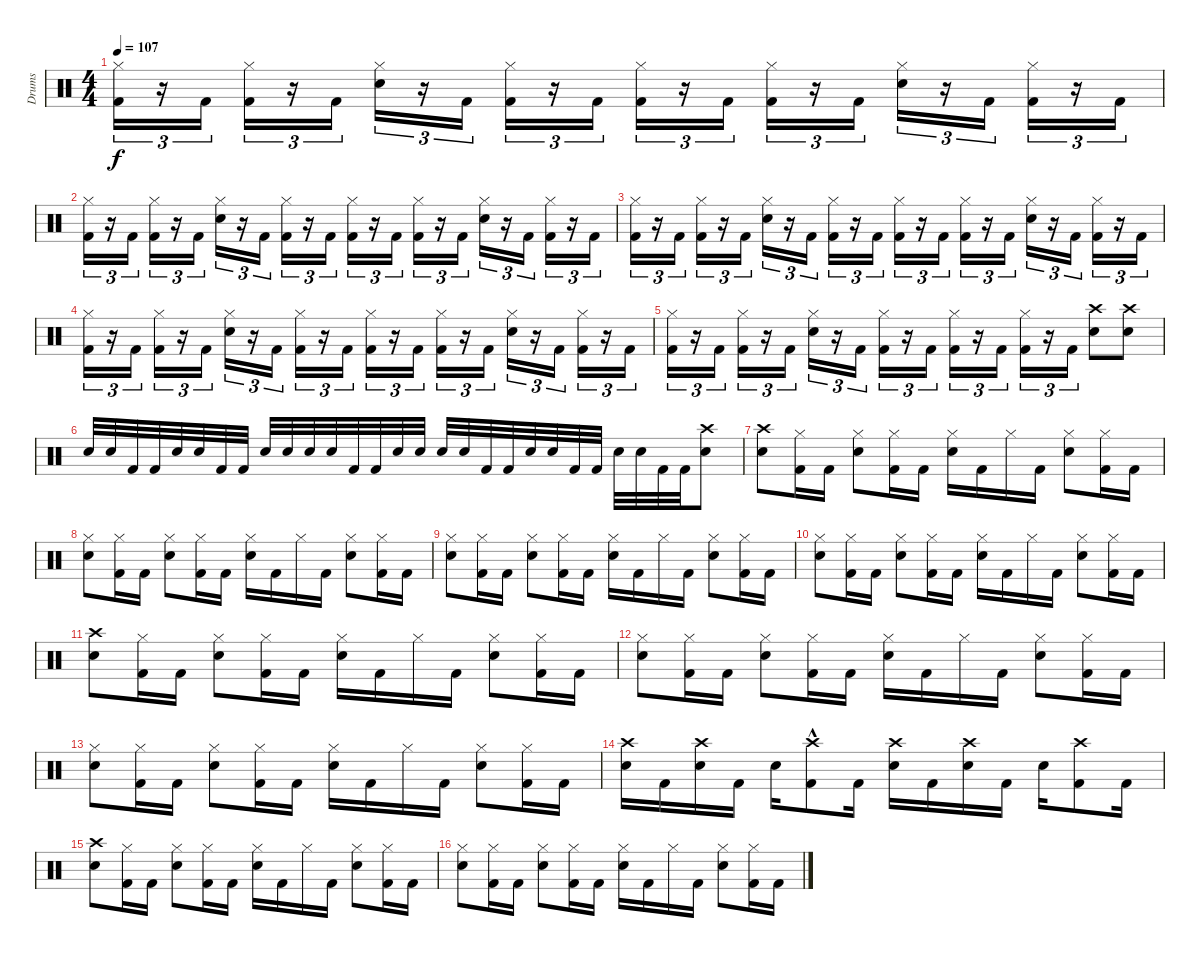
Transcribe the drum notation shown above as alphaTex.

\track ("Drums" "Drums") {instrument percussion}
\staff {score}
\articulation defaults
\ts (4 4)
\tempo 107
\clef neutral
\ks c
("Hi-Hat (closed)" "Kick (hit) 2").16{tu (3 2) dy f} r.16{tu (3 2)} "Kick (hit) 2".16{tu (3 2)} ("Hi-Hat (closed)" "Kick (hit) 2").16{tu (3 2)} r.16{tu (3 2)} "Kick (hit) 2".16{tu (3 2)} ("Hi-Hat (closed)" "Electric Snare (hit)").16{tu (3 2)} r.16{tu (3 2)} "Kick (hit) 2".16{tu (3 2)} ("Hi-Hat (closed)" "Kick (hit) 2").16{tu (3 2)} r.16{tu (3 2)} "Kick (hit) 2".16{tu (3 2)} ("Hi-Hat (closed)" "Kick (hit) 2").16{tu (3 2)} r.16{tu (3 2)} "Kick (hit) 2".16{tu (3 2)} ("Hi-Hat (closed)" "Kick (hit) 2").16{tu (3 2)} r.16{tu (3 2)} "Kick (hit) 2".16{tu (3 2)} ("Hi-Hat (closed)" "Electric Snare (hit)").16{tu (3 2)} r.16{tu (3 2)} "Kick (hit) 2".16{tu (3 2)} ("Hi-Hat (closed)" "Kick (hit) 2").16{tu (3 2)} r.16{tu (3 2)} "Kick (hit) 2".16{tu (3 2)} |
("Hi-Hat (closed)" "Kick (hit) 2").16{tu (3 2)} r.16{tu (3 2)} "Kick (hit) 2".16{tu (3 2)} ("Hi-Hat (closed)" "Kick (hit) 2").16{tu (3 2)} r.16{tu (3 2)} "Kick (hit) 2".16{tu (3 2)} ("Hi-Hat (closed)" "Electric Snare (hit)").16{tu (3 2)} r.16{tu (3 2)} "Kick (hit) 2".16{tu (3 2)} ("Hi-Hat (closed)" "Kick (hit) 2").16{tu (3 2)} r.16{tu (3 2)} "Kick (hit) 2".16{tu (3 2)} ("Hi-Hat (closed)" "Kick (hit) 2").16{tu (3 2)} r.16{tu (3 2)} "Kick (hit) 2".16{tu (3 2)} ("Hi-Hat (closed)" "Kick (hit) 2").16{tu (3 2)} r.16{tu (3 2)} "Kick (hit) 2".16{tu (3 2)} ("Hi-Hat (closed)" "Electric Snare (hit)").16{tu (3 2)} r.16{tu (3 2)} "Kick (hit) 2".16{tu (3 2)} ("Hi-Hat (closed)" "Kick (hit) 2").16{tu (3 2)} r.16{tu (3 2)} "Kick (hit) 2".16{tu (3 2)} |
("Hi-Hat (closed)" "Kick (hit) 2").16{tu (3 2)} r.16{tu (3 2)} "Kick (hit) 2".16{tu (3 2)} ("Hi-Hat (closed)" "Kick (hit) 2").16{tu (3 2)} r.16{tu (3 2)} "Kick (hit) 2".16{tu (3 2)} ("Hi-Hat (closed)" "Electric Snare (hit)").16{tu (3 2)} r.16{tu (3 2)} "Kick (hit) 2".16{tu (3 2)} ("Hi-Hat (closed)" "Kick (hit) 2").16{tu (3 2)} r.16{tu (3 2)} "Kick (hit) 2".16{tu (3 2)} ("Hi-Hat (closed)" "Kick (hit) 2").16{tu (3 2)} r.16{tu (3 2)} "Kick (hit) 2".16{tu (3 2)} ("Hi-Hat (closed)" "Kick (hit) 2").16{tu (3 2)} r.16{tu (3 2)} "Kick (hit) 2".16{tu (3 2)} ("Hi-Hat (closed)" "Electric Snare (hit)").16{tu (3 2)} r.16{tu (3 2)} "Kick (hit) 2".16{tu (3 2)} ("Hi-Hat (closed)" "Kick (hit) 2").16{tu (3 2)} r.16{tu (3 2)} "Kick (hit) 2".16{tu (3 2)} |
("Hi-Hat (closed)" "Kick (hit) 2").16{tu (3 2)} r.16{tu (3 2)} "Kick (hit) 2".16{tu (3 2)} ("Hi-Hat (closed)" "Kick (hit) 2").16{tu (3 2)} r.16{tu (3 2)} "Kick (hit) 2".16{tu (3 2)} ("Hi-Hat (closed)" "Electric Snare (hit)").16{tu (3 2)} r.16{tu (3 2)} "Kick (hit) 2".16{tu (3 2)} ("Hi-Hat (closed)" "Kick (hit) 2").16{tu (3 2)} r.16{tu (3 2)} "Kick (hit) 2".16{tu (3 2)} ("Hi-Hat (closed)" "Kick (hit) 2").16{tu (3 2)} r.16{tu (3 2)} "Kick (hit) 2".16{tu (3 2)} ("Hi-Hat (closed)" "Kick (hit) 2").16{tu (3 2)} r.16{tu (3 2)} "Kick (hit) 2".16{tu (3 2)} ("Hi-Hat (closed)" "Electric Snare (hit)").16{tu (3 2)} r.16{tu (3 2)} "Kick (hit) 2".16{tu (3 2)} ("Hi-Hat (closed)" "Kick (hit) 2").16{tu (3 2)} r.16{tu (3 2)} "Kick (hit) 2".16{tu (3 2)} |
("Hi-Hat (closed)" "Kick (hit) 2").16{tu (3 2)} r.16{tu (3 2)} "Kick (hit) 2".16{tu (3 2)} ("Hi-Hat (closed)" "Kick (hit) 2").16{tu (3 2)} r.16{tu (3 2)} "Kick (hit) 2".16{tu (3 2)} ("Hi-Hat (closed)" "Electric Snare (hit)").16{tu (3 2)} r.16{tu (3 2)} "Kick (hit) 2".16{tu (3 2)} ("Hi-Hat (closed)" "Kick (hit) 2").16{tu (3 2)} r.16{tu (3 2)} "Kick (hit) 2".16{tu (3 2)} ("Hi-Hat (closed)" "Kick (hit) 2").16{tu (3 2)} r.16{tu (3 2)} "Kick (hit) 2".16{tu (3 2)} ("Hi-Hat (closed)" "Kick (hit) 2").16{tu (3 2)} r.16{tu (3 2)} "Kick (hit) 2".16{tu (3 2)} ("Crash high (hit)" "Electric Snare (hit)").8 ("Crash high (hit)" "Electric Snare (hit)").8 |
"Electric Snare (hit)".32 "Electric Snare (hit)".32 "Kick (hit) 2".32 "Kick (hit) 2".32 "Electric Snare (hit)".32 "Electric Snare (hit)".32 "Kick (hit) 2".32 "Kick (hit) 2".32 "Electric Snare (hit)".32 "Electric Snare (hit)".32 "Electric Snare (hit)".32 "Electric Snare (hit)".32 "Kick (hit) 2".32 "Kick (hit) 2".32 "Electric Snare (hit)".32 "Electric Snare (hit)".32 "Electric Snare (hit)".32 "Electric Snare (hit)".32 "Kick (hit) 2".32 "Kick (hit) 2".32 "Electric Snare (hit)".32 "Electric Snare (hit)".32 "Kick (hit) 2".32 "Kick (hit) 2".32 "Electric Snare (hit)".32 "Electric Snare (hit)".32 "Kick (hit) 2".32 "Kick (hit) 2".32 ("Crash high (hit)" "Electric Snare (hit)").8 |
("Crash high (hit)" "Electric Snare (hit)").8 ("Hi-Hat (closed)" "Kick (hit) 2").16 "Kick (hit) 2".16 ("Hi-Hat (closed)" "Electric Snare (hit)").8 ("Hi-Hat (closed)" "Kick (hit) 2").16 "Kick (hit) 2".16 ("Hi-Hat (closed)" "Electric Snare (hit)").16 "Kick (hit) 2".16 "Hi-Hat (closed)".16 "Kick (hit) 2".16 ("Hi-Hat (closed)" "Electric Snare (hit)").8 ("Hi-Hat (closed)" "Kick (hit) 2").16 "Kick (hit) 2".16 |
("Hi-Hat (closed)" "Electric Snare (hit)").8 ("Hi-Hat (closed)" "Kick (hit) 2").16 "Kick (hit) 2".16 ("Hi-Hat (closed)" "Electric Snare (hit)").8 ("Hi-Hat (closed)" "Kick (hit) 2").16 "Kick (hit) 2".16 ("Hi-Hat (closed)" "Electric Snare (hit)").16 "Kick (hit) 2".16 "Hi-Hat (closed)".16 "Kick (hit) 2".16 ("Hi-Hat (closed)" "Electric Snare (hit)").8 ("Hi-Hat (closed)" "Kick (hit) 2").16 "Kick (hit) 2".16 |
("Hi-Hat (closed)" "Electric Snare (hit)").8 ("Hi-Hat (closed)" "Kick (hit) 2").16 "Kick (hit) 2".16 ("Hi-Hat (closed)" "Electric Snare (hit)").8 ("Hi-Hat (closed)" "Kick (hit) 2").16 "Kick (hit) 2".16 ("Hi-Hat (closed)" "Electric Snare (hit)").16 "Kick (hit) 2".16 "Hi-Hat (closed)".16 "Kick (hit) 2".16 ("Hi-Hat (closed)" "Electric Snare (hit)").8 ("Hi-Hat (closed)" "Kick (hit) 2").16 "Kick (hit) 2".16 |
("Hi-Hat (closed)" "Electric Snare (hit)").8 ("Hi-Hat (closed)" "Kick (hit) 2").16 "Kick (hit) 2".16 ("Hi-Hat (closed)" "Electric Snare (hit)").8 ("Hi-Hat (closed)" "Kick (hit) 2").16 "Kick (hit) 2".16 ("Hi-Hat (closed)" "Electric Snare (hit)").16 "Kick (hit) 2".16 "Hi-Hat (closed)".16 "Kick (hit) 2".16 ("Hi-Hat (closed)" "Electric Snare (hit)").8 ("Hi-Hat (closed)" "Kick (hit) 2").16 "Kick (hit) 2".16 |
("Crash high (hit)" "Electric Snare (hit)").8 ("Hi-Hat (closed)" "Kick (hit) 2").16 "Kick (hit) 2".16 ("Hi-Hat (closed)" "Electric Snare (hit)").8 ("Hi-Hat (closed)" "Kick (hit) 2").16 "Kick (hit) 2".16 ("Hi-Hat (closed)" "Electric Snare (hit)").16 "Kick (hit) 2".16 "Hi-Hat (closed)".16 "Kick (hit) 2".16 ("Hi-Hat (closed)" "Electric Snare (hit)").8 ("Hi-Hat (closed)" "Kick (hit) 2").16 "Kick (hit) 2".16 |
("Hi-Hat (closed)" "Electric Snare (hit)").8 ("Hi-Hat (closed)" "Kick (hit) 2").16 "Kick (hit) 2".16 ("Hi-Hat (closed)" "Electric Snare (hit)").8 ("Hi-Hat (closed)" "Kick (hit) 2").16 "Kick (hit) 2".16 ("Hi-Hat (closed)" "Electric Snare (hit)").16 "Kick (hit) 2".16 "Hi-Hat (closed)".16 "Kick (hit) 2".16 ("Hi-Hat (closed)" "Electric Snare (hit)").8 ("Hi-Hat (closed)" "Kick (hit) 2").16 "Kick (hit) 2".16 |
("Hi-Hat (closed)" "Electric Snare (hit)").8 ("Hi-Hat (closed)" "Kick (hit) 2").16 "Kick (hit) 2".16 ("Hi-Hat (closed)" "Electric Snare (hit)").8 ("Hi-Hat (closed)" "Kick (hit) 2").16 "Kick (hit) 2".16 ("Hi-Hat (closed)" "Electric Snare (hit)").16 "Kick (hit) 2".16 "Hi-Hat (closed)".16 "Kick (hit) 2".16 ("Hi-Hat (closed)" "Electric Snare (hit)").8 ("Hi-Hat (closed)" "Kick (hit) 2").16 "Kick (hit) 2".16 |
("Crash high (hit)" "Electric Snare (hit)").16 "Kick (hit) 2".16 ("Crash high (hit)" "Electric Snare (hit)").16 "Kick (hit) 2".16 "Electric Snare (hit)".16 ("Crash high (hit)"{hac} "Kick (hit) 2").8 "Kick (hit) 2".16 ("Crash high (hit)" "Electric Snare (hit)").16 "Kick (hit) 2".16 ("Crash high (hit)" "Electric Snare (hit)").16 "Kick (hit) 2".16 "Electric Snare (hit)".16 ("Crash high (hit)" "Kick (hit) 2").8 "Kick (hit) 2".16 |
("Crash high (hit)" "Electric Snare (hit)").8 ("Hi-Hat (closed)" "Kick (hit) 2").16 "Kick (hit) 2".16 ("Hi-Hat (closed)" "Electric Snare (hit)").8 ("Hi-Hat (closed)" "Kick (hit) 2").16 "Kick (hit) 2".16 ("Hi-Hat (closed)" "Electric Snare (hit)").16 "Kick (hit) 2".16 "Hi-Hat (closed)".16 "Kick (hit) 2".16 ("Hi-Hat (closed)" "Electric Snare (hit)").8 ("Hi-Hat (closed)" "Kick (hit) 2").16 "Kick (hit) 2".16 |
("Hi-Hat (closed)" "Electric Snare (hit)").8 ("Hi-Hat (closed)" "Kick (hit) 2").16 "Kick (hit) 2".16 ("Hi-Hat (closed)" "Electric Snare (hit)").8 ("Hi-Hat (closed)" "Kick (hit) 2").16 "Kick (hit) 2".16 ("Hi-Hat (closed)" "Electric Snare (hit)").16 "Kick (hit) 2".16 "Hi-Hat (closed)".16 "Kick (hit) 2".16 ("Hi-Hat (closed)" "Electric Snare (hit)").8 ("Hi-Hat (closed)" "Kick (hit) 2").16 "Kick (hit) 2".16
